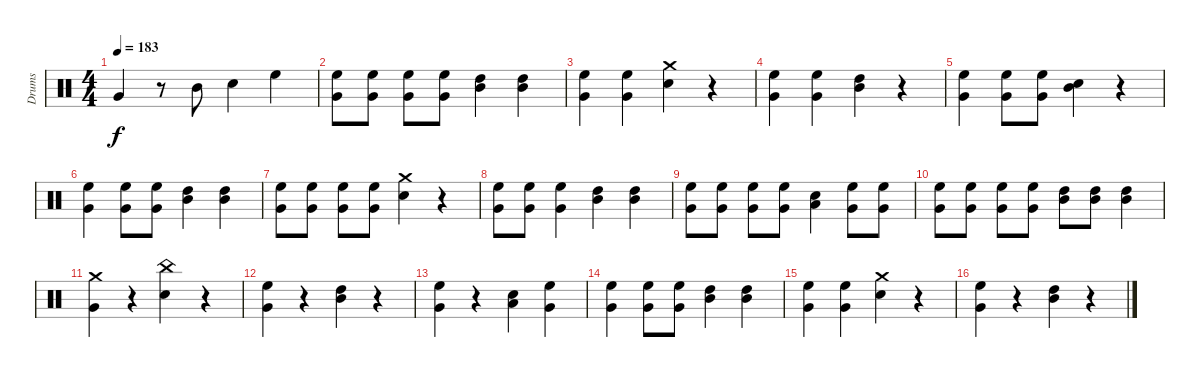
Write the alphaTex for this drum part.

\track ("Drums" "Drums") {instrument percussion}
\staff {score}
\articulation defaults
\ts (4 4)
\tempo 183
\clef neutral
\ks c "Very Low Tom (hit)".4{dy f}
r.8 "Mid Tom (hit)".8 "Snare (hit) 2".4 "High Floor Tom (hit)".4 |
("High Floor Tom (hit)" "Very Low Tom (hit)").8 ("Very Low Tom (hit)" "High Floor Tom (hit)").8 ("High Floor Tom (hit)" "Very Low Tom (hit)").8 ("High Floor Tom (hit)" "Very Low Tom (hit)").8 ("Mid Tom (hit)" "High Tom (hit)").4 ("Mid Tom (hit)" "High Tom (hit)").4 |
("Very Low Tom (hit)" "High Floor Tom (hit)").4 ("Very Low Tom (hit)" "High Floor Tom (hit)").4 ("Crash medium (hit)" "Snare (hit) 2").4 r.4 |
("Very Low Tom (hit)" "High Floor Tom (hit)").4 ("Very Low Tom (hit)" "High Floor Tom (hit)").4 ("Mid Tom (hit)" "High Tom (hit)").4 r.4 |
("Very Low Tom (hit)" "High Floor Tom (hit)").4 ("High Floor Tom (hit)" "Very Low Tom (hit)").8 ("High Floor Tom (hit)" "Very Low Tom (hit)").8 ("Snare (hit) 2" "Mid Tom (hit)").4 r.4 |
("High Floor Tom (hit)" "Very Low Tom (hit)").4 ("High Floor Tom (hit)" "Very Low Tom (hit)").8 ("High Floor Tom (hit)" "Very Low Tom (hit)").8 ("Mid Tom (hit)" "High Tom (hit)").4 ("Mid Tom (hit)" "High Tom (hit)").4 |
("High Floor Tom (hit)" "Very Low Tom (hit)").8 ("Very Low Tom (hit)" "High Floor Tom (hit)").8 ("High Floor Tom (hit)" "Very Low Tom (hit)").8 ("High Floor Tom (hit)" "Very Low Tom (hit)").8 ("Snare (hit) 2" "Crash medium (hit)").4 r.4 |
("Very Low Tom (hit)" "High Floor Tom (hit)").8 ("Very Low Tom (hit)" "High Floor Tom (hit)").8 ("Very Low Tom (hit)" "High Floor Tom (hit)").4 ("High Tom (hit)" "Mid Tom (hit)").4 ("High Tom (hit)" "Mid Tom (hit)").4 |
("High Floor Tom (hit)" "Very Low Tom (hit)").8 ("High Floor Tom (hit)" "Very Low Tom (hit)").8 ("High Floor Tom (hit)" "Very Low Tom (hit)").8 ("High Floor Tom (hit)" "Very Low Tom (hit)").8 ("Snare (hit) 2" "Low Tom (hit)").4 ("High Floor Tom (hit)" "Very Low Tom (hit)").8 ("High Floor Tom (hit)" "Very Low Tom (hit)").8 |
("Very Low Tom (hit)" "High Floor Tom (hit)").8 ("Very Low Tom (hit)" "High Floor Tom (hit)").8 ("Very Low Tom (hit)" "High Floor Tom (hit)").8 ("Very Low Tom (hit)" "High Floor Tom (hit)").8 ("High Tom (hit)" "Mid Tom (hit)").8 ("High Tom (hit)" "Mid Tom (hit)").8 ("Mid Tom (hit)" "High Tom (hit)").4 |
("Very Low Tom (hit)" "Crash medium (hit)").4 r.4 ("China (hit)" "Snare (hit) 2").4 r.4 |
("High Floor Tom (hit)" "Very Low Tom (hit)").4 r.4 ("Mid Tom (hit)" "High Tom (hit)").4 r.4 |
("Very Low Tom (hit)" "High Floor Tom (hit)").4 r.4 ("Snare (hit) 2" "Low Tom (hit)").4 ("High Floor Tom (hit)" "Very Low Tom (hit)").4 |
("Very Low Tom (hit)" "High Floor Tom (hit)").4 ("High Floor Tom (hit)" "Very Low Tom (hit)").8 ("High Floor Tom (hit)" "Very Low Tom (hit)").8 ("Mid Tom (hit)" "High Tom (hit)").4 ("Mid Tom (hit)" "High Tom (hit)").4 |
("Very Low Tom (hit)" "High Floor Tom (hit)").4 ("Very Low Tom (hit)" "High Floor Tom (hit)").4 ("Crash medium (hit)" "Snare (hit) 2").4 r.4 |
("High Floor Tom (hit)" "Very Low Tom (hit)").4 r.4 ("Mid Tom (hit)" "High Tom (hit)").4 r.4
